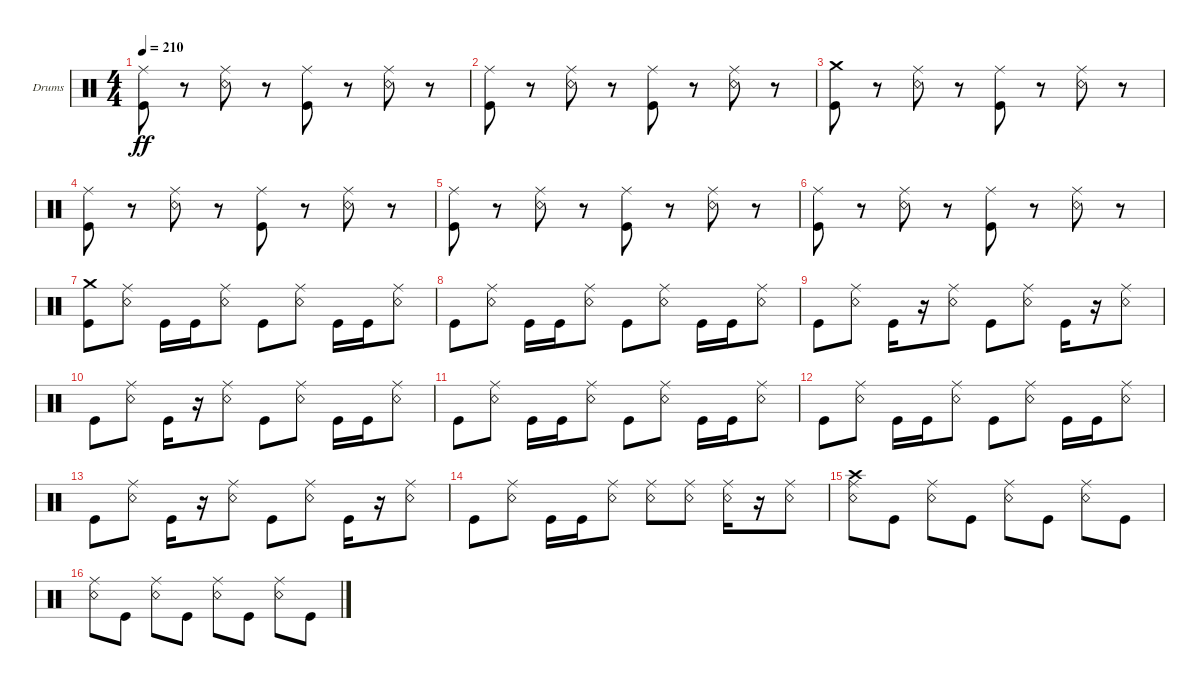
\defaultSystemsLayout 4
\bracketExtendMode groupsimilarinstruments
\firstSystemTrackNameOrientation horizontal
\otherSystemsTrackNameOrientation horizontal
\track ("Drumkit" "Drums") {instrument percussion}
\staff {score}
\articulation defaults
\ts (4 4)
\tempo 210
\clef neutral
\ks c
("Kick (hit)" "Ride (middle)").8{dy ff} r.8 ("Snare (rim shot)" "Ride (middle)").8 r.8 ("Kick (hit)" "Ride (middle)").8 r.8 ("Snare (rim shot)" "Ride (middle)").8 r.8 |
("Kick (hit)" "Ride (middle)").8 r.8 ("Snare (rim shot)" "Ride (middle)").8 r.8 ("Kick (hit)" "Ride (middle)").8 r.8 ("Snare (rim shot)" "Ride (middle)").8 r.8 |
("Kick (hit)" "Crash medium (hit)").8 r.8 ("Snare (rim shot)" "Ride (middle)").8 r.8 ("Kick (hit)" "Ride (middle)").8 r.8 ("Snare (rim shot)" "Ride (middle)").8 r.8 |
("Kick (hit)" "Ride (middle)").8 r.8 ("Snare (rim shot)" "Ride (middle)").8 r.8 ("Kick (hit)" "Ride (middle)").8 r.8 ("Snare (rim shot)" "Ride (middle)").8 r.8 |
("Kick (hit)" "Ride (middle)").8 r.8 ("Snare (rim shot)" "Ride (middle)").8 r.8 ("Kick (hit)" "Ride (middle)").8 r.8 ("Snare (rim shot)" "Ride (middle)").8 r.8 |
("Kick (hit)" "Ride (middle)").8 r.8 ("Snare (rim shot)" "Ride (middle)").8 r.8 ("Kick (hit)" "Ride (middle)").8 r.8 ("Snare (rim shot)" "Ride (middle)").8 r.8 |
("Kick (hit)" "Crash medium (hit)").8 ("Snare (rim shot)" "Ride (middle)").8 "Kick (hit)".16 "Kick (hit)".16 ("Snare (rim shot)" "Ride (middle)").8 "Kick (hit)".8 ("Snare (rim shot)" "Ride (middle)").8 "Kick (hit)".16 "Kick (hit)".16 ("Snare (rim shot)" "Ride (middle)").8 |
"Kick (hit)".8 ("Snare (rim shot)" "Ride (middle)").8 "Kick (hit)".16 "Kick (hit)".16 ("Snare (rim shot)" "Ride (middle)").8 "Kick (hit)".8 ("Snare (rim shot)" "Ride (middle)").8 "Kick (hit)".16 "Kick (hit)".16 ("Snare (rim shot)" "Ride (middle)").8 |
"Kick (hit)".8 ("Snare (rim shot)" "Ride (middle)").8 "Kick (hit)".16 r.16 ("Snare (rim shot)" "Ride (middle)").8 "Kick (hit)".8 ("Snare (rim shot)" "Ride (middle)").8 "Kick (hit)".16 r.16 ("Snare (rim shot)" "Ride (middle)").8 |
"Kick (hit)".8 ("Snare (rim shot)" "Ride (middle)").8 "Kick (hit)".16 r.16 ("Snare (rim shot)" "Ride (middle)").8 "Kick (hit)".8 ("Snare (rim shot)" "Ride (middle)").8 "Kick (hit)".16 "Kick (hit)".16 ("Snare (rim shot)" "Ride (middle)").8 |
"Kick (hit)".8 ("Snare (rim shot)" "Ride (middle)").8 "Kick (hit)".16 "Kick (hit)".16 ("Snare (rim shot)" "Ride (middle)").8 "Kick (hit)".8 ("Snare (rim shot)" "Ride (middle)").8 "Kick (hit)".16 "Kick (hit)".16 ("Snare (rim shot)" "Ride (middle)").8 |
"Kick (hit)".8 ("Snare (rim shot)" "Ride (middle)").8 "Kick (hit)".16 "Kick (hit)".16 ("Snare (rim shot)" "Ride (middle)").8 "Kick (hit)".8 ("Snare (rim shot)" "Ride (middle)").8 "Kick (hit)".16 "Kick (hit)".16 ("Snare (rim shot)" "Ride (middle)").8 |
"Kick (hit)".8 ("Snare (rim shot)" "Ride (middle)").8 "Kick (hit)".16 r.16 ("Snare (rim shot)" "Ride (middle)").8 "Kick (hit)".8 ("Snare (rim shot)" "Ride (middle)").8 "Kick (hit)".16 r.16 ("Snare (rim shot)" "Ride (middle)").8 |
"Kick (hit)".8 ("Snare (rim shot)" "Ride (middle)").8 "Kick (hit)".16 "Kick (hit)".16 ("Snare (rim shot)" "Ride (middle)").8 ("Snare (rim shot)" "Ride (middle)").8 ("Snare (rim shot)" "Ride (middle)").8 ("Snare (rim shot)" "Ride (middle)").16 r.16 ("Snare (rim shot)" "Ride (middle)").8 |
("Snare (rim shot)" "Ride (middle)" "Crash high (hit)").8 "Kick (hit)".8 ("Snare (rim shot)" "Ride (middle)").8 "Kick (hit)".8 ("Snare (rim shot)" "Ride (middle)").8 "Kick (hit)".8 ("Snare (rim shot)" "Ride (middle)").8 "Kick (hit)".8 |
("Snare (rim shot)" "Ride (middle)").8 "Kick (hit)".8 ("Snare (rim shot)" "Ride (middle)").8 "Kick (hit)".8 ("Snare (rim shot)" "Ride (middle)").8 "Kick (hit)".8 ("Snare (rim shot)" "Ride (middle)").8 "Kick (hit)".8
